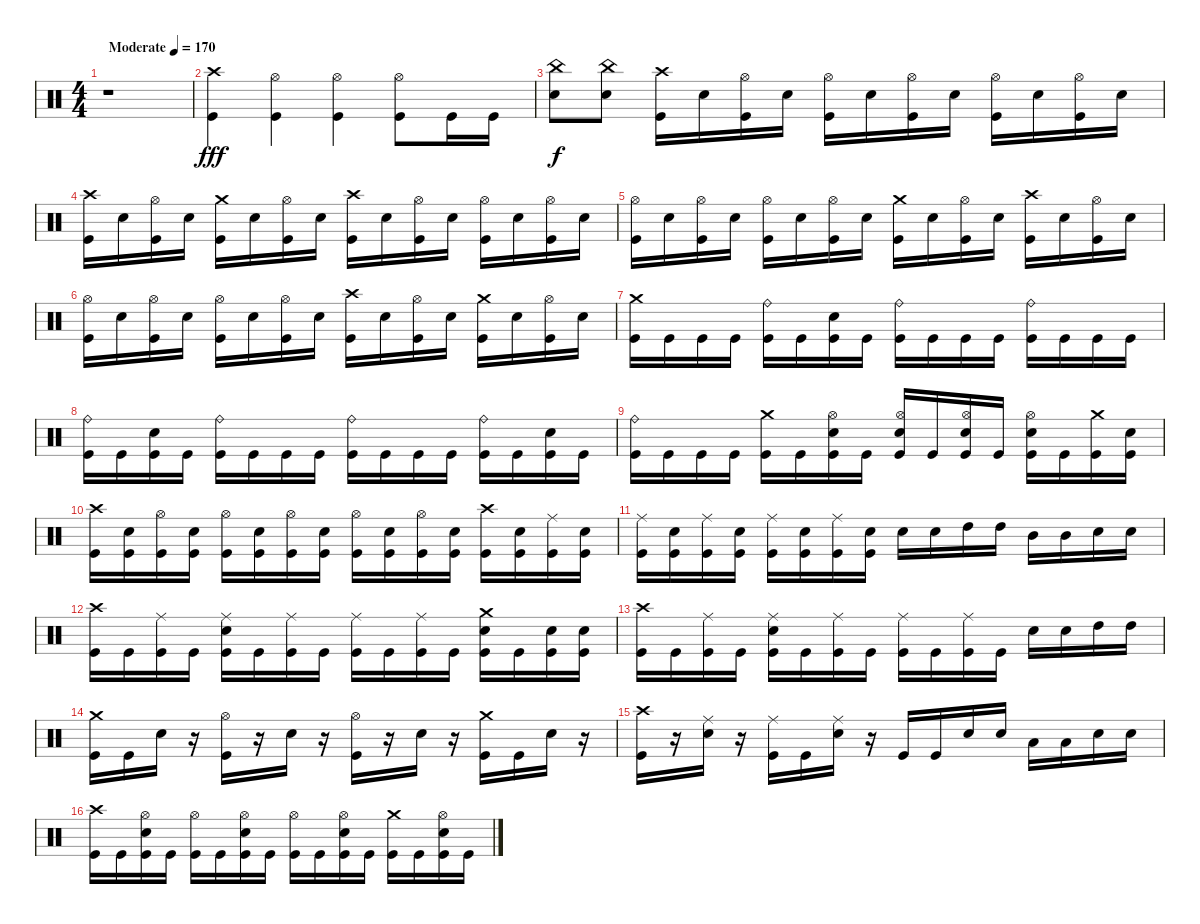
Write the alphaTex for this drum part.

\track "" {instrument percussion}
\staff {score}
\articulation defaults
\ts (4 4)
\tempo (170 "Moderate")
\clef neutral
\ks c
r.1{dy fff} |
("Kick (hit)" "Crash high (hit)").4 ("Hi-Hat (open)" "Kick (hit)").4 ("Hi-Hat (open)" "Kick (hit)").4 ("Hi-Hat (open)" "Kick (hit)").8 "Kick (hit)".16 "Kick (hit)".16 |
("Snare (hit) 2" "China (hit)").8{dy f} ("China (hit)" "Snare (hit) 2").8 ("Crash high (hit)" "Kick (hit)").16 "Snare (hit) 2".16 ("Kick (hit)" "Hi-Hat (open)").16 "Snare (hit) 2".16 ("Kick (hit)" "Hi-Hat (open)").16 "Snare (hit) 2".16 ("Kick (hit)" "Hi-Hat (open)").16 "Snare (hit) 2".16 ("Kick (hit)" "Hi-Hat (open)").16 "Snare (hit) 2".16 ("Kick (hit)" "Hi-Hat (open)").16 "Snare (hit) 2".16 |
("Crash high (hit)" "Kick (hit)").16 "Snare (hit) 2".16 ("Kick (hit)" "Hi-Hat (open)").16 "Snare (hit) 2".16 ("Kick (hit)" "Crash medium (hit)").16 "Snare (hit) 2".16 ("Kick (hit)" "Hi-Hat (open)").16 "Snare (hit) 2".16 ("Crash high (hit)" "Kick (hit)").16 "Snare (hit) 2".16 ("Kick (hit)" "Hi-Hat (open)").16 "Snare (hit) 2".16 ("Kick (hit)" "Hi-Hat (open)").16 "Snare (hit) 2".16 ("Kick (hit)" "Hi-Hat (open)").16 "Snare (hit) 2".16 |
("Kick (hit)" "Hi-Hat (open)").16 "Snare (hit) 2".16 ("Kick (hit)" "Hi-Hat (open)").16 "Snare (hit) 2".16 ("Hi-Hat (open)" "Kick (hit)").16 "Snare (hit) 2".16 ("Kick (hit)" "Hi-Hat (open)").16 "Snare (hit) 2".16 ("Kick (hit)" "Crash medium (hit)").16 "Snare (hit) 2".16 ("Kick (hit)" "Hi-Hat (open)").16 "Snare (hit) 2".16 ("Crash high (hit)" "Kick (hit)").16 "Snare (hit) 2".16 ("Kick (hit)" "Hi-Hat (open)").16 "Snare (hit) 2".16 |
("Kick (hit)" "Hi-Hat (open)").16 "Snare (hit) 2".16 ("Kick (hit)" "Hi-Hat (open)").16 "Snare (hit) 2".16 ("Kick (hit)" "Hi-Hat (open)").16 "Snare (hit) 2".16 ("Kick (hit)" "Hi-Hat (open)").16 "Snare (hit) 2".16 ("Crash high (hit)" "Kick (hit)").16 "Snare (hit) 2".16 ("Kick (hit)" "Hi-Hat (open)").16 "Snare (hit) 2".16 ("Kick (hit)" "Crash medium (hit)").16 "Snare (hit) 2".16 ("Kick (hit)" "Hi-Hat (open)").16 "Snare (hit) 2".16 |
("Crash medium (hit)" "Kick (hit)").16 "Kick (hit)".16 "Kick (hit)".16 "Kick (hit)".16 ("Ride (bell)" "Kick (hit)").16 "Kick (hit)".16 ("Kick (hit)" "Snare (hit) 2").16 "Kick (hit)".16 ("Ride (bell)" "Kick (hit)").16 "Kick (hit)".16 "Kick (hit)".16 "Kick (hit)".16 ("Ride (bell)" "Kick (hit)").16 "Kick (hit)".16 "Kick (hit)".16 "Kick (hit)".16 |
("Ride (bell)" "Kick (hit)").16 "Kick (hit)".16 ("Kick (hit)" "Snare (hit) 2").16 "Kick (hit)".16 ("Kick (hit)" "Ride (bell)").16 "Kick (hit)".16 "Kick (hit)".16 "Kick (hit)".16 ("Kick (hit)" "Ride (bell)").16 "Kick (hit)".16 "Kick (hit)".16 "Kick (hit)".16 ("Kick (hit)" "Ride (bell)").16 "Kick (hit)".16 ("Snare (hit) 2" "Kick (hit)").16 "Kick (hit)".16 |
("Kick (hit)" "Ride (bell)").16 "Kick (hit)".16 "Kick (hit)".16 "Kick (hit)".16 ("Crash medium (hit)" "Kick (hit)").16 "Kick (hit)".16 ("Snare (hit) 2" "Hi-Hat (open)" "Kick (hit)").16 "Kick (hit)".16 ("Snare (hit) 2" "Kick (hit)" "Hi-Hat (open)").16 "Kick (hit)".16 ("Snare (hit) 2" "Kick (hit)" "Hi-Hat (open)").16 "Kick (hit)".16 ("Snare (hit) 2" "Kick (hit)" "Hi-Hat (open)").16 "Kick (hit)".16 ("Kick (hit)" "Crash medium (hit)").16 ("Snare (hit) 2" "Kick (hit)").16 |
("Kick (hit)" "Crash high (hit)").16 ("Kick (hit)" "Snare (hit) 2").16 ("Kick (hit)" "Hi-Hat (open)").16 ("Kick (hit)" "Snare (hit) 2").16 ("Hi-Hat (open)" "Kick (hit)").16 ("Kick (hit)" "Snare (hit) 2").16 ("Hi-Hat (open)" "Kick (hit)").16 ("Kick (hit)" "Snare (hit) 2").16 ("Hi-Hat (open)" "Kick (hit)").16 ("Kick (hit)" "Snare (hit) 2").16 ("Kick (hit)" "Hi-Hat (open)").16 ("Kick (hit)" "Snare (hit) 2").16 ("Crash high (hit)" "Kick (hit)").16 ("Kick (hit)" "Snare (hit) 2").16 ("Ride (middle)" "Kick (hit)").16 ("Kick (hit)" "Snare (hit) 2").16 |
("Ride (middle)" "Kick (hit)").16 ("Snare (hit) 2" "Kick (hit)").16 ("Ride (middle)" "Kick (hit)").16 ("Snare (hit) 2" "Kick (hit)").16 ("Ride (middle)" "Kick (hit)").16 ("Snare (hit) 2" "Kick (hit)").16 ("Ride (middle)" "Kick (hit)").16 ("Snare (hit) 2" "Kick (hit)").16 "Snare (hit) 2".16 "Snare (hit) 2".16 "High Tom (hit)".16 "High Tom (hit)".16 "Mid Tom (hit)".16 "Mid Tom (hit)".16 "Snare (hit) 2".16 "Snare (hit) 2".16 |
("Crash high (hit)" "Kick (hit)").16 "Kick (hit)".16 ("Ride (middle)" "Kick (hit)").16 "Kick (hit)".16 ("Ride (middle)" "Snare (hit) 2" "Kick (hit)").16 "Kick (hit)".16 ("Ride (middle)" "Kick (hit)").16 "Kick (hit)".16 ("Ride (middle)" "Kick (hit)").16 "Kick (hit)".16 ("Ride (middle)" "Kick (hit)").16 "Kick (hit)".16 ("Crash medium (hit)" "Snare (hit) 2" "Kick (hit)").16 "Kick (hit)".16 ("Snare (hit) 2" "Kick (hit)").16 ("Snare (hit) 2" "Kick (hit)").16 |
("Crash high (hit)" "Kick (hit)").16 "Kick (hit)".16 ("Ride (middle)" "Kick (hit)").16 "Kick (hit)".16 ("Ride (middle)" "Kick (hit)" "Snare (hit) 2").16 "Kick (hit)".16 ("Ride (middle)" "Kick (hit)").16 "Kick (hit)".16 ("Ride (middle)" "Kick (hit)").16 "Kick (hit)".16 ("Ride (middle)" "Kick (hit)").16 "Kick (hit)".16 "Snare (hit) 2".16 "Snare (hit) 2".16 "High Tom (hit)".16 "High Tom (hit)".16 |
("Crash medium (hit)" "Kick (hit)").16 "Kick (hit)".16 "Snare (hit) 2".16 r.16 ("Kick (hit)" "Hi-Hat (open)").16 r.16 "Snare (hit) 2".16 r.16 ("Kick (hit)" "Hi-Hat (open)").16 r.16 "Snare (hit) 2".16 r.16 ("Kick (hit)" "Crash medium (hit)").16 "Kick (hit)".16 "Snare (hit) 2".16 r.16 |
("Kick (hit)" "Crash high (hit)").16 r.16 ("Snare (hit) 2" "Ride (middle)").16 r.16 ("Ride (middle)" "Kick (hit)").16 "Kick (hit)".16 ("Ride (middle)" "Snare (hit) 2").16 r.16 "Kick (hit)".16 "Kick (hit)".16 "Snare (hit) 2".16 "Snare (hit) 2".16 "Low Tom (hit)".16 "Low Tom (hit)".16 "Snare (hit) 2".16 "Snare (hit) 2".16 |
("Crash high (hit)" "Kick (hit)").16 "Kick (hit)".16 ("Snare (hit) 2" "Hi-Hat (open)" "Kick (hit)").16 "Kick (hit)".16 ("Hi-Hat (open)" "Kick (hit)").16 "Kick (hit)".16 ("Hi-Hat (open)" "Kick (hit)" "Snare (hit) 2").16 "Kick (hit)".16 ("Hi-Hat (open)" "Kick (hit)").16 "Kick (hit)".16 ("Snare (hit) 2" "Hi-Hat (open)" "Kick (hit)").16 "Kick (hit)".16 ("Crash medium (hit)" "Kick (hit)").16 "Kick (hit)".16 ("Snare (hit) 2" "Kick (hit)" "Hi-Hat (open)").16 "Kick (hit)".16
